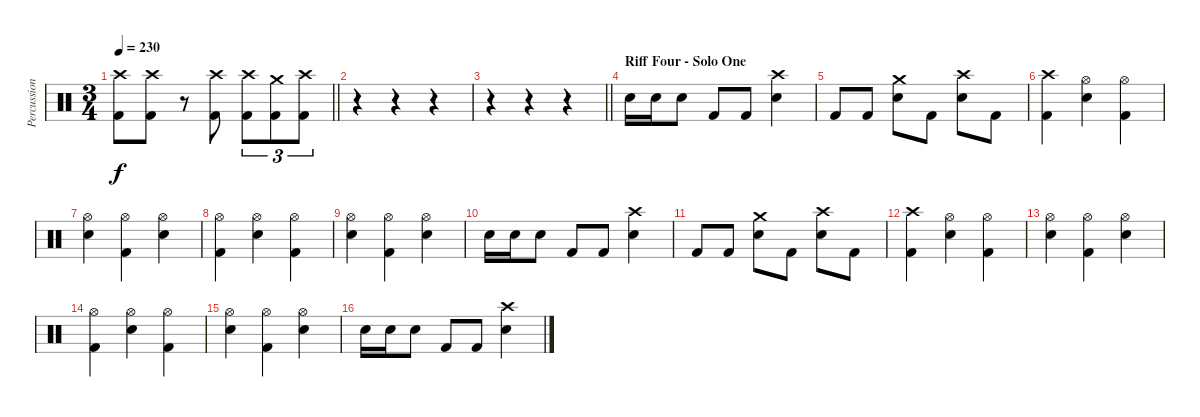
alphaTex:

\track ("Percussion" "Percussion") {instrument percussion}
\staff {score}
\articulation defaults
\ts (3 4)
\tempo 230
\clef neutral
\barLineRight lightlight
\ks c
("Crash high (hit)" "Kick (hit) 2").8{dy f} ("Crash high (hit)" "Kick (hit) 2").8 r.8 ("Crash high (hit)" "Kick (hit) 2").8 ("Crash high (hit)" "Kick (hit) 2").8{tu (3 2)} ("Crash medium (hit)" "Kick (hit) 2").8{tu (3 2)} ("Crash high (hit)" "Kick (hit) 2").8{tu (3 2)} |
r.4 r.4 r.4 |
\barLineRight lightlight
r.4 r.4 r.4 |
\section ("" "Riff Four - Solo One")
"Electric Snare (hit)".16 "Electric Snare (hit)".16 "Electric Snare (hit)".8 "Kick (hit) 2".8 "Kick (hit) 2".8 ("Crash high (hit)" "Electric Snare (hit)").4 |
"Kick (hit) 2".8 "Kick (hit) 2".8 ("Crash medium (hit)" "Electric Snare (hit)").8 "Kick (hit) 2".8 ("Crash high (hit)" "Electric Snare (hit)").8 "Kick (hit) 2".8 |
("Crash high (hit)" "Kick (hit) 2").4 ("Hi-Hat (open)" "Electric Snare (hit)").4 ("Hi-Hat (open)" "Kick (hit) 2").4 |
("Hi-Hat (open)" "Electric Snare (hit)").4 ("Hi-Hat (open)" "Kick (hit) 2").4 ("Hi-Hat (open)" "Electric Snare (hit)").4 |
("Hi-Hat (open)" "Kick (hit) 2").4 ("Hi-Hat (open)" "Electric Snare (hit)").4 ("Hi-Hat (open)" "Kick (hit) 2").4 |
("Hi-Hat (open)" "Electric Snare (hit)").4 ("Hi-Hat (open)" "Kick (hit) 2").4 ("Hi-Hat (open)" "Electric Snare (hit)").4 |
"Electric Snare (hit)".16 "Electric Snare (hit)".16 "Electric Snare (hit)".8 "Kick (hit) 2".8 "Kick (hit) 2".8 ("Crash high (hit)" "Electric Snare (hit)").4 |
"Kick (hit) 2".8 "Kick (hit) 2".8 ("Crash medium (hit)" "Electric Snare (hit)").8 "Kick (hit) 2".8 ("Crash high (hit)" "Electric Snare (hit)").8 "Kick (hit) 2".8 |
("Crash high (hit)" "Kick (hit) 2").4 ("Hi-Hat (open)" "Electric Snare (hit)").4 ("Hi-Hat (open)" "Kick (hit) 2").4 |
("Hi-Hat (open)" "Electric Snare (hit)").4 ("Hi-Hat (open)" "Kick (hit) 2").4 ("Hi-Hat (open)" "Electric Snare (hit)").4 |
("Hi-Hat (open)" "Kick (hit) 2").4 ("Hi-Hat (open)" "Electric Snare (hit)").4 ("Hi-Hat (open)" "Kick (hit) 2").4 |
("Hi-Hat (open)" "Electric Snare (hit)").4 ("Hi-Hat (open)" "Kick (hit) 2").4 ("Hi-Hat (open)" "Electric Snare (hit)").4 |
"Electric Snare (hit)".16 "Electric Snare (hit)".16 "Electric Snare (hit)".8 "Kick (hit) 2".8 "Kick (hit) 2".8 ("Crash high (hit)" "Electric Snare (hit)").4
